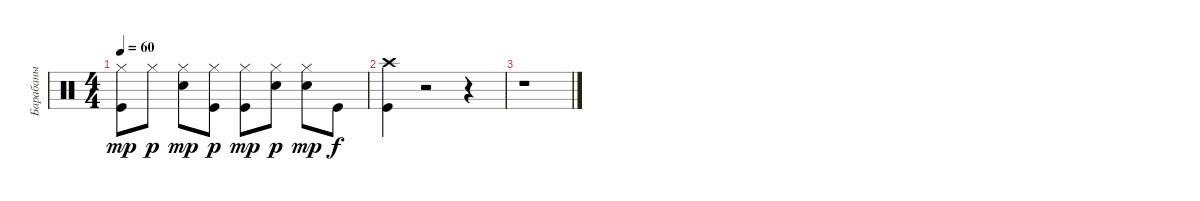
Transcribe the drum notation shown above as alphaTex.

\track ("Барабаны" "Барабаны") {instrument percussion}
\staff {score}
\articulation defaults
\ts (4 4)
\tempo 60
\clef neutral
\ks c
("Kick (hit)" "Hi-Hat (closed)").8{dy mp} "Hi-Hat (closed)".8{dy p} ("Snare (hit) 2" "Hi-Hat (closed)").8{dy mp} ("Kick (hit)" "Hi-Hat (closed)").8{dy p} ("Kick (hit)" "Hi-Hat (closed)").8{dy mp} ("Snare (hit) 2" "Hi-Hat (closed)").8{dy p} ("Snare (hit) 2" "Hi-Hat (closed)").8{dy mp} "Kick (hit)".8{dy f} |
("Crash high (hit)" "Kick (hit)").4 r.2 r.4 |
r.1
